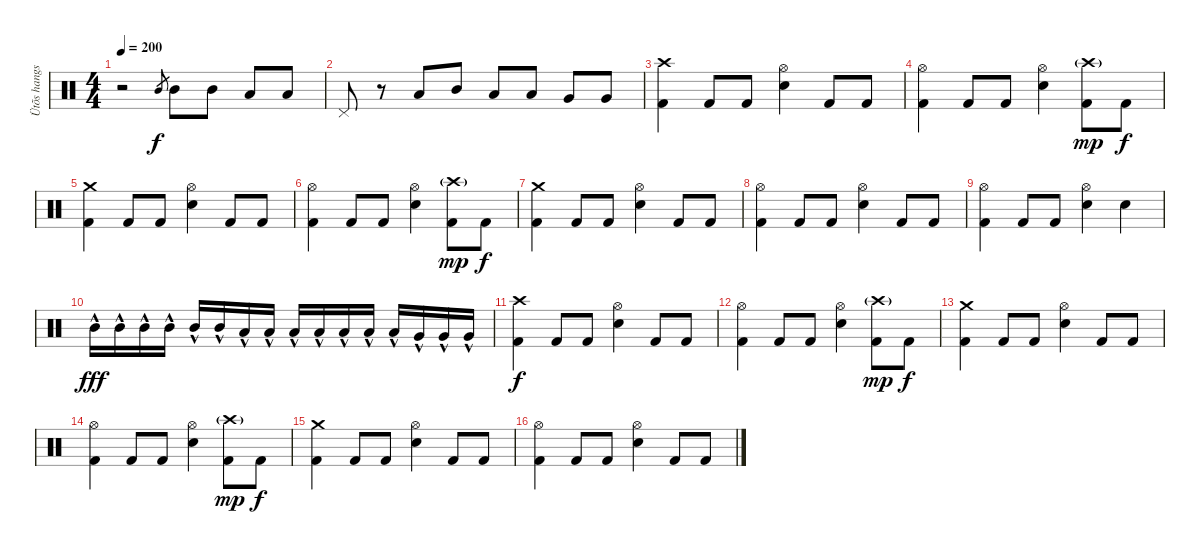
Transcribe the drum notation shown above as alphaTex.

\track ("Ütõs hangszer" "Ütõs hangs") {instrument percussion}
\staff {score}
\articulation defaults
\ts (4 4)
\tempo 200
\clef neutral
\ks c
r.2{dy f} "Mid Tom (hit)".8{gr} "Mid Tom (hit)".8 "Mid Tom (hit)".8 "Low Tom (hit)".8 "Low Tom (hit)".8 |
"Pedal Hi-Hat (hit)".8 r.8 "Low Tom (hit)".8 "Mid Tom (hit)".8 "Low Tom (hit)".8 "Low Tom (hit)".8 "Very Low Tom (hit)".8 "Very Low Tom (hit)".8 |
("Crash high (hit)" "Kick (hit) 2").4 "Kick (hit) 2".8 "Kick (hit) 2".8 ("Hi-Hat (open)" "Snare (hit) 2").4 "Kick (hit) 2".8 "Kick (hit) 2".8 |
("Hi-Hat (open)" "Kick (hit) 2").4 "Kick (hit) 2".8 "Kick (hit) 2".8 ("Hi-Hat (open)" "Snare (hit) 2").4 ("Crash high (hit)"{g} "Kick (hit) 2").8{dy mp} "Kick (hit) 2".8{dy f} |
("Crash medium (hit)" "Kick (hit) 2").4 "Kick (hit) 2".8 "Kick (hit) 2".8 ("Hi-Hat (open)" "Snare (hit) 2").4 "Kick (hit) 2".8 "Kick (hit) 2".8 |
("Hi-Hat (open)" "Kick (hit) 2").4 "Kick (hit) 2".8 "Kick (hit) 2".8 ("Hi-Hat (open)" "Snare (hit) 2").4 ("Crash high (hit)"{g} "Kick (hit) 2").8{dy mp} "Kick (hit) 2".8{dy f} |
("Crash medium (hit)" "Kick (hit) 2").4 "Kick (hit) 2".8 "Kick (hit) 2".8 ("Hi-Hat (open)" "Snare (hit) 2").4 "Kick (hit) 2".8 "Kick (hit) 2".8 |
("Hi-Hat (open)" "Kick (hit) 2").4 "Kick (hit) 2".8 "Kick (hit) 2".8 ("Hi-Hat (open)" "Snare (hit) 2").4 "Kick (hit) 2".8 "Kick (hit) 2".8 |
("Hi-Hat (open)" "Kick (hit) 2").4 "Kick (hit) 2".8 "Kick (hit) 2".8 ("Hi-Hat (open)" "Snare (hit) 2").4 "Snare (hit) 2".4 |
"Mid Tom (hit)"{hac}.16{dy fff} "Mid Tom (hit)"{hac}.16 "Mid Tom (hit)"{hac}.16 "Mid Tom (hit)"{hac}.16 "Mid Tom (hit)"{hac}.16 "Mid Tom (hit)"{hac}.16 "Low Tom (hit)"{hac}.16 "Low Tom (hit)"{hac}.16 "Low Tom (hit)"{hac}.16 "Low Tom (hit)"{hac}.16 "Low Tom (hit)"{hac}.16 "Low Tom (hit)"{hac}.16 "Low Tom (hit)"{hac}.16 "Very Low Tom (hit)"{hac}.16 "Very Low Tom (hit)"{hac}.16 "Very Low Tom (hit)"{hac}.16 |
("Crash high (hit)" "Kick (hit) 2").4{dy f} "Kick (hit) 2".8 "Kick (hit) 2".8 ("Hi-Hat (open)" "Snare (hit) 2").4 "Kick (hit) 2".8 "Kick (hit) 2".8 |
("Hi-Hat (open)" "Kick (hit) 2").4 "Kick (hit) 2".8 "Kick (hit) 2".8 ("Hi-Hat (open)" "Snare (hit) 2").4 ("Crash high (hit)"{g} "Kick (hit) 2").8{dy mp} "Kick (hit) 2".8{dy f} |
("Crash medium (hit)" "Kick (hit) 2").4 "Kick (hit) 2".8 "Kick (hit) 2".8 ("Hi-Hat (open)" "Snare (hit) 2").4 "Kick (hit) 2".8 "Kick (hit) 2".8 |
("Hi-Hat (open)" "Kick (hit) 2").4 "Kick (hit) 2".8 "Kick (hit) 2".8 ("Hi-Hat (open)" "Snare (hit) 2").4 ("Crash high (hit)"{g} "Kick (hit) 2").8{dy mp} "Kick (hit) 2".8{dy f} |
("Crash medium (hit)" "Kick (hit) 2").4 "Kick (hit) 2".8 "Kick (hit) 2".8 ("Hi-Hat (open)" "Snare (hit) 2").4 "Kick (hit) 2".8 "Kick (hit) 2".8 |
("Hi-Hat (open)" "Kick (hit) 2").4 "Kick (hit) 2".8 "Kick (hit) 2".8 ("Hi-Hat (open)" "Snare (hit) 2").4 "Kick (hit) 2".8 "Kick (hit) 2".8
